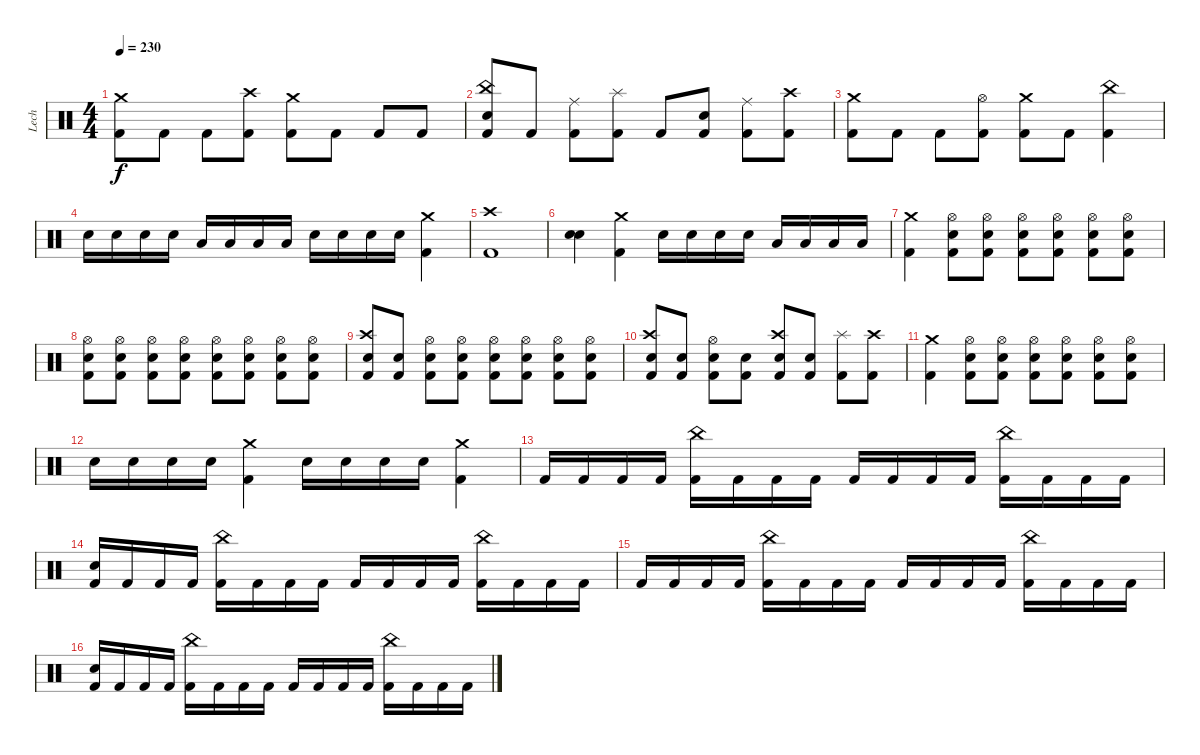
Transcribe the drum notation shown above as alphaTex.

\track ("Lech" "Lech") {instrument percussion}
\staff {score}
\articulation defaults
\ts (4 4)
\tempo 230
\clef neutral
\ks c
("Crash medium (hit)" "Kick (hit) 2").8{dy f} "Kick (hit) 2".8 "Kick (hit) 2".8 ("Crash high (hit)" "Kick (hit) 2").8 ("Crash medium (hit)" "Kick (hit) 2").8 "Kick (hit) 2".8 "Kick (hit) 2".8 "Kick (hit) 2".8 |
("China (hit)" "Electric Snare (hit)" "Kick (hit) 2").8 "Kick (hit) 2".8 ("Ride (middle)" "Kick (hit) 2").8 ("Splash (hit)" "Kick (hit) 2").8 "Kick (hit) 2".8 ("Electric Snare (hit)" "Kick (hit) 2").8 ("Ride (middle)" "Kick (hit) 2").8 ("Crash high (hit)" "Kick (hit) 2").8 |
("Crash medium (hit)" "Kick (hit) 2").8 "Kick (hit) 2".8 "Kick (hit) 2".8 ("Hi-Hat (open)" "Kick (hit) 2").8 ("Crash medium (hit)" "Kick (hit) 2").8 "Kick (hit) 2".8 ("China (hit)" "Kick (hit) 2").4 |
"Electric Snare (hit)".16 "Electric Snare (hit)".16 "Electric Snare (hit)".16 "Electric Snare (hit)".16 "Low Tom (hit)".16 "Low Tom (hit)".16 "Low Tom (hit)".16 "Low Tom (hit)".16 "Electric Snare (hit)".16 "Electric Snare (hit)".16 "Electric Snare (hit)".16 "Electric Snare (hit)".16 ("Crash medium (hit)" "Kick (hit) 2").4 |
("Crash high (hit)" "Kick (hit) 2").1 |
("Electric Snare (hit)" "Electric Snare (hit)").4{bd 240} ("Crash medium (hit)" "Kick (hit) 2").4 "Electric Snare (hit)".16 "Electric Snare (hit)".16 "Electric Snare (hit)".16 "Electric Snare (hit)".16 "Low Tom (hit)".16 "Low Tom (hit)".16 "Low Tom (hit)".16 "Low Tom (hit)".16 |
("Crash medium (hit)" "Kick (hit) 2").4 ("Hi-Hat (open)" "Electric Snare (hit)" "Kick (hit) 2").8 ("Hi-Hat (open)" "Electric Snare (hit)" "Kick (hit) 2").8 ("Hi-Hat (open)" "Electric Snare (hit)" "Kick (hit) 2").8 ("Hi-Hat (open)" "Electric Snare (hit)" "Kick (hit) 2").8 ("Hi-Hat (open)" "Electric Snare (hit)" "Kick (hit) 2").8 ("Hi-Hat (open)" "Electric Snare (hit)" "Kick (hit) 2").8 |
("Hi-Hat (open)" "Electric Snare (hit)" "Kick (hit) 2").8 ("Hi-Hat (open)" "Electric Snare (hit)" "Kick (hit) 2").8 ("Hi-Hat (open)" "Electric Snare (hit)" "Kick (hit) 2").8 ("Hi-Hat (open)" "Electric Snare (hit)" "Kick (hit) 2").8 ("Hi-Hat (open)" "Electric Snare (hit)" "Kick (hit) 2").8 ("Hi-Hat (open)" "Electric Snare (hit)" "Kick (hit) 2").8 ("Hi-Hat (open)" "Electric Snare (hit)" "Kick (hit) 2").8 ("Hi-Hat (open)" "Electric Snare (hit)" "Kick (hit) 2").8 |
("Crash high (hit)" "Electric Snare (hit)" "Kick (hit) 2").8 ("Electric Snare (hit)" "Kick (hit) 2").8 ("Hi-Hat (open)" "Electric Snare (hit)" "Kick (hit) 2").8 ("Hi-Hat (open)" "Electric Snare (hit)" "Kick (hit) 2").8 ("Hi-Hat (open)" "Electric Snare (hit)" "Kick (hit) 2").8 ("Hi-Hat (open)" "Electric Snare (hit)" "Kick (hit) 2").8 ("Hi-Hat (open)" "Electric Snare (hit)" "Kick (hit) 2").8 ("Hi-Hat (open)" "Electric Snare (hit)" "Kick (hit) 2").8 |
("Crash high (hit)" "Electric Snare (hit)" "Kick (hit) 2").8 ("Electric Snare (hit)" "Kick (hit) 2").8 ("Hi-Hat (open)" "Electric Snare (hit)" "Kick (hit) 2").8 ("Electric Snare (hit)" "Kick (hit) 2").8 ("Crash high (hit)" "Electric Snare (hit)" "Kick (hit) 2").8 ("Electric Snare (hit)" "Kick (hit) 2").8 ("Splash (hit)" "Kick (hit) 2").8 ("Crash high (hit)" "Kick (hit) 2").8 |
("Crash medium (hit)" "Kick (hit) 2").4 ("Hi-Hat (open)" "Electric Snare (hit)" "Kick (hit) 2").8 ("Hi-Hat (open)" "Electric Snare (hit)" "Kick (hit) 2").8 ("Hi-Hat (open)" "Electric Snare (hit)" "Kick (hit) 2").8 ("Hi-Hat (open)" "Electric Snare (hit)" "Kick (hit) 2").8 ("Hi-Hat (open)" "Electric Snare (hit)" "Kick (hit) 2").8 ("Hi-Hat (open)" "Electric Snare (hit)" "Kick (hit) 2").8 |
"Electric Snare (hit)".16 "Electric Snare (hit)".16 "Electric Snare (hit)".16 "Electric Snare (hit)".16 ("Crash medium (hit)" "Kick (hit) 2").4 "Electric Snare (hit)".16 "Electric Snare (hit)".16 "Electric Snare (hit)".16 "Electric Snare (hit)".16 ("Crash medium (hit)" "Kick (hit) 2").4 |
"Kick (hit) 2".16 "Kick (hit) 2".16 "Kick (hit) 2".16 "Kick (hit) 2".16 ("China (hit)" "Kick (hit) 2").16 "Kick (hit) 2".16 "Kick (hit) 2".16 "Kick (hit) 2".16 "Kick (hit) 2".16 "Kick (hit) 2".16 "Kick (hit) 2".16 "Kick (hit) 2".16 ("China (hit)" "Kick (hit) 2").16 "Kick (hit) 2".16 "Kick (hit) 2".16 "Kick (hit) 2".16 |
("Electric Snare (hit)" "Kick (hit) 2").16 "Kick (hit) 2".16 "Kick (hit) 2".16 "Kick (hit) 2".16 ("China (hit)" "Kick (hit) 2").16 "Kick (hit) 2".16 "Kick (hit) 2".16 "Kick (hit) 2".16 "Kick (hit) 2".16 "Kick (hit) 2".16 "Kick (hit) 2".16 "Kick (hit) 2".16 ("China (hit)" "Kick (hit) 2").16 "Kick (hit) 2".16 "Kick (hit) 2".16 "Kick (hit) 2".16 |
"Kick (hit) 2".16 "Kick (hit) 2".16 "Kick (hit) 2".16 "Kick (hit) 2".16 ("China (hit)" "Kick (hit) 2").16 "Kick (hit) 2".16 "Kick (hit) 2".16 "Kick (hit) 2".16 "Kick (hit) 2".16 "Kick (hit) 2".16 "Kick (hit) 2".16 "Kick (hit) 2".16 ("China (hit)" "Kick (hit) 2").16 "Kick (hit) 2".16 "Kick (hit) 2".16 "Kick (hit) 2".16 |
("Electric Snare (hit)" "Kick (hit) 2").16 "Kick (hit) 2".16 "Kick (hit) 2".16 "Kick (hit) 2".16 ("China (hit)" "Kick (hit) 2").16 "Kick (hit) 2".16 "Kick (hit) 2".16 "Kick (hit) 2".16 "Kick (hit) 2".16 "Kick (hit) 2".16 "Kick (hit) 2".16 "Kick (hit) 2".16 ("China (hit)" "Kick (hit) 2").16 "Kick (hit) 2".16 "Kick (hit) 2".16 "Kick (hit) 2".16
